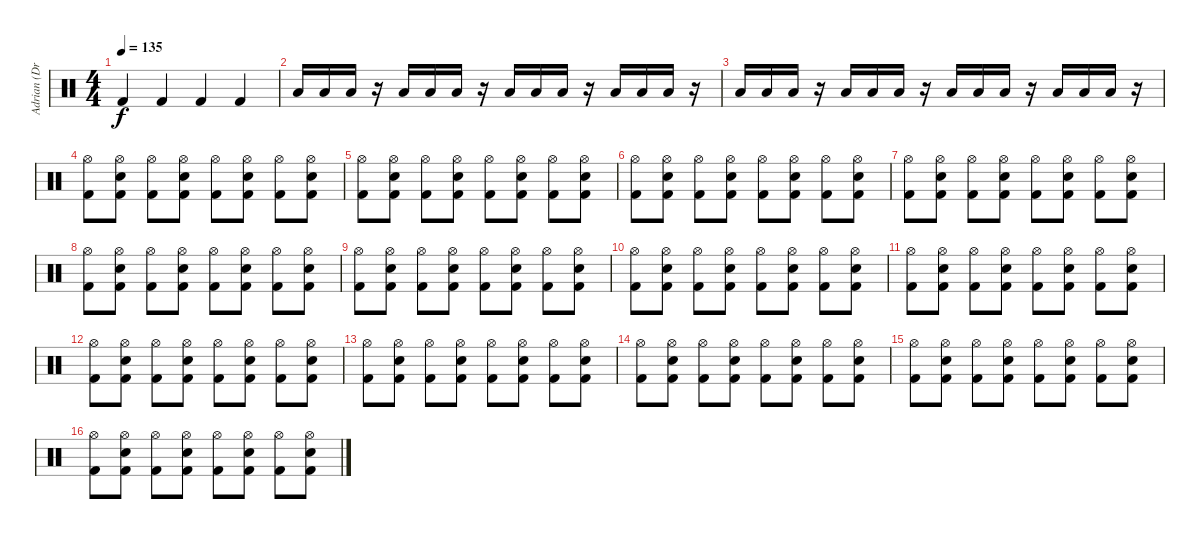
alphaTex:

\track ("Adrian (Drums)" "Adrian (Dr") {instrument percussion}
\staff {score}
\articulation defaults
\ts (4 4)
\tempo 135
\clef neutral
\ks c "Kick (hit) 2".4{dy f} "Kick (hit) 2".4 "Kick (hit) 2".4 "Kick (hit) 2".4
|
"Low Tom (hit)".16 "Low Tom (hit)".16 "Low Tom (hit)".16 r.16 "Low Tom (hit)".16 "Low Tom (hit)".16 "Low Tom (hit)".16 r.16 "Low Tom (hit)".16 "Low Tom (hit)".16 "Low Tom (hit)".16 r.16 "Low Tom (hit)".16 "Low Tom (hit)".16 "Low Tom (hit)".16 r.16 |
"Low Tom (hit)".16 "Low Tom (hit)".16 "Low Tom (hit)".16 r.16 "Low Tom (hit)".16 "Low Tom (hit)".16 "Low Tom (hit)".16 r.16 "Low Tom (hit)".16 "Low Tom (hit)".16 "Low Tom (hit)".16 r.16 "Low Tom (hit)".16 "Low Tom (hit)".16 "Low Tom (hit)".16 r.16 |
("Kick (hit) 2" "Hi-Hat (open)").8 ("Kick (hit) 2" "Hi-Hat (open)" "Snare (hit) 2").8 ("Kick (hit) 2" "Hi-Hat (open)").8 ("Kick (hit) 2" "Hi-Hat (open)" "Snare (hit) 2").8 ("Kick (hit) 2" "Hi-Hat (open)").8 ("Kick (hit) 2" "Hi-Hat (open)" "Snare (hit) 2").8 ("Kick (hit) 2" "Hi-Hat (open)").8 ("Kick (hit) 2" "Hi-Hat (open)" "Snare (hit) 2").8 |
("Kick (hit) 2" "Hi-Hat (open)").8 ("Kick (hit) 2" "Hi-Hat (open)" "Snare (hit) 2").8 ("Kick (hit) 2" "Hi-Hat (open)").8 ("Kick (hit) 2" "Hi-Hat (open)" "Snare (hit) 2").8 ("Kick (hit) 2" "Hi-Hat (open)").8 ("Kick (hit) 2" "Hi-Hat (open)" "Snare (hit) 2").8 ("Kick (hit) 2" "Hi-Hat (open)").8 ("Kick (hit) 2" "Hi-Hat (open)" "Snare (hit) 2").8 |
("Kick (hit) 2" "Hi-Hat (open)").8 ("Kick (hit) 2" "Hi-Hat (open)" "Snare (hit) 2").8 ("Kick (hit) 2" "Hi-Hat (open)").8 ("Kick (hit) 2" "Hi-Hat (open)" "Snare (hit) 2").8 ("Kick (hit) 2" "Hi-Hat (open)").8 ("Kick (hit) 2" "Hi-Hat (open)" "Snare (hit) 2").8 ("Kick (hit) 2" "Hi-Hat (open)").8 ("Kick (hit) 2" "Hi-Hat (open)" "Snare (hit) 2").8 |
("Kick (hit) 2" "Hi-Hat (open)").8 ("Kick (hit) 2" "Hi-Hat (open)" "Snare (hit) 2").8 ("Kick (hit) 2" "Hi-Hat (open)").8 ("Kick (hit) 2" "Hi-Hat (open)" "Snare (hit) 2").8 ("Kick (hit) 2" "Hi-Hat (open)").8 ("Kick (hit) 2" "Hi-Hat (open)" "Snare (hit) 2").8 ("Kick (hit) 2" "Hi-Hat (open)").8 ("Kick (hit) 2" "Hi-Hat (open)" "Snare (hit) 2").8 |
("Kick (hit) 2" "Hi-Hat (open)").8 ("Kick (hit) 2" "Hi-Hat (open)" "Snare (hit) 2").8 ("Kick (hit) 2" "Hi-Hat (open)").8 ("Kick (hit) 2" "Hi-Hat (open)" "Snare (hit) 2").8 ("Kick (hit) 2" "Hi-Hat (open)").8 ("Kick (hit) 2" "Hi-Hat (open)" "Snare (hit) 2").8 ("Kick (hit) 2" "Hi-Hat (open)").8 ("Kick (hit) 2" "Hi-Hat (open)" "Snare (hit) 2").8 |
("Kick (hit) 2" "Hi-Hat (open)").8 ("Kick (hit) 2" "Hi-Hat (open)" "Snare (hit) 2").8 ("Kick (hit) 2" "Hi-Hat (open)").8 ("Kick (hit) 2" "Hi-Hat (open)" "Snare (hit) 2").8 ("Kick (hit) 2" "Hi-Hat (open)").8 ("Kick (hit) 2" "Hi-Hat (open)" "Snare (hit) 2").8 ("Kick (hit) 2" "Hi-Hat (open)").8 ("Kick (hit) 2" "Hi-Hat (open)" "Snare (hit) 2").8 |
("Kick (hit) 2" "Hi-Hat (open)").8 ("Kick (hit) 2" "Hi-Hat (open)" "Snare (hit) 2").8 ("Kick (hit) 2" "Hi-Hat (open)").8 ("Kick (hit) 2" "Hi-Hat (open)" "Snare (hit) 2").8 ("Kick (hit) 2" "Hi-Hat (open)").8 ("Kick (hit) 2" "Hi-Hat (open)" "Snare (hit) 2").8 ("Kick (hit) 2" "Hi-Hat (open)").8 ("Kick (hit) 2" "Hi-Hat (open)" "Snare (hit) 2").8 |
("Kick (hit) 2" "Hi-Hat (open)").8 ("Kick (hit) 2" "Hi-Hat (open)" "Snare (hit) 2").8 ("Kick (hit) 2" "Hi-Hat (open)").8 ("Kick (hit) 2" "Hi-Hat (open)" "Snare (hit) 2").8 ("Kick (hit) 2" "Hi-Hat (open)").8 ("Kick (hit) 2" "Hi-Hat (open)" "Snare (hit) 2").8 ("Kick (hit) 2" "Hi-Hat (open)").8 ("Kick (hit) 2" "Hi-Hat (open)" "Snare (hit) 2").8 |
("Kick (hit) 2" "Hi-Hat (open)").8 ("Kick (hit) 2" "Hi-Hat (open)" "Snare (hit) 2").8 ("Kick (hit) 2" "Hi-Hat (open)").8 ("Kick (hit) 2" "Hi-Hat (open)" "Snare (hit) 2").8 ("Kick (hit) 2" "Hi-Hat (open)").8 ("Kick (hit) 2" "Hi-Hat (open)" "Snare (hit) 2").8 ("Kick (hit) 2" "Hi-Hat (open)").8 ("Kick (hit) 2" "Hi-Hat (open)" "Snare (hit) 2").8 |
("Kick (hit) 2" "Hi-Hat (open)").8 ("Kick (hit) 2" "Hi-Hat (open)" "Snare (hit) 2").8 ("Kick (hit) 2" "Hi-Hat (open)").8 ("Kick (hit) 2" "Hi-Hat (open)" "Snare (hit) 2").8 ("Kick (hit) 2" "Hi-Hat (open)").8 ("Kick (hit) 2" "Hi-Hat (open)" "Snare (hit) 2").8 ("Kick (hit) 2" "Hi-Hat (open)").8 ("Kick (hit) 2" "Hi-Hat (open)" "Snare (hit) 2").8 |
("Kick (hit) 2" "Hi-Hat (open)").8 ("Kick (hit) 2" "Hi-Hat (open)" "Snare (hit) 2").8 ("Kick (hit) 2" "Hi-Hat (open)").8 ("Kick (hit) 2" "Hi-Hat (open)" "Snare (hit) 2").8 ("Kick (hit) 2" "Hi-Hat (open)").8 ("Kick (hit) 2" "Hi-Hat (open)" "Snare (hit) 2").8 ("Kick (hit) 2" "Hi-Hat (open)").8 ("Kick (hit) 2" "Hi-Hat (open)" "Snare (hit) 2").8 |
("Kick (hit) 2" "Hi-Hat (open)").8 ("Kick (hit) 2" "Hi-Hat (open)" "Snare (hit) 2").8 ("Kick (hit) 2" "Hi-Hat (open)").8 ("Kick (hit) 2" "Hi-Hat (open)" "Snare (hit) 2").8 ("Kick (hit) 2" "Hi-Hat (open)").8 ("Kick (hit) 2" "Hi-Hat (open)" "Snare (hit) 2").8 ("Kick (hit) 2" "Hi-Hat (open)").8 ("Kick (hit) 2" "Hi-Hat (open)" "Snare (hit) 2").8 |
("Kick (hit) 2" "Hi-Hat (open)").8 ("Kick (hit) 2" "Hi-Hat (open)" "Snare (hit) 2").8 ("Kick (hit) 2" "Hi-Hat (open)").8 ("Kick (hit) 2" "Hi-Hat (open)" "Snare (hit) 2").8 ("Kick (hit) 2" "Hi-Hat (open)").8 ("Kick (hit) 2" "Hi-Hat (open)" "Snare (hit) 2").8 ("Kick (hit) 2" "Hi-Hat (open)").8 ("Kick (hit) 2" "Hi-Hat (open)" "Snare (hit) 2").8
